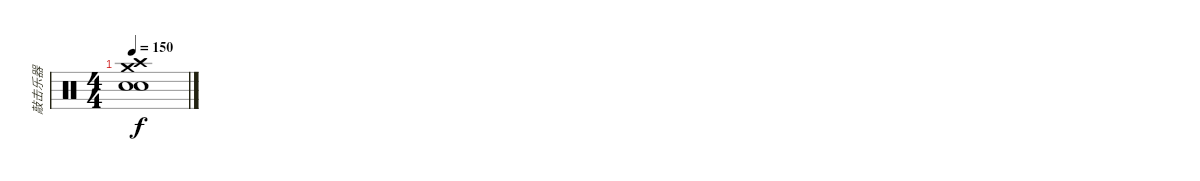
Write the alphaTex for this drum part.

\track ("敲击乐器" "敲击乐器") {instrument percussion}
\staff {score}
\articulation defaults
\ts (4 4)
\tempo 150
\clef neutral
\ks c
("Snare (hit) 2" "Electric Snare (hit)" "Crash medium (hit)" "Crash high (hit)").1{dy f}
